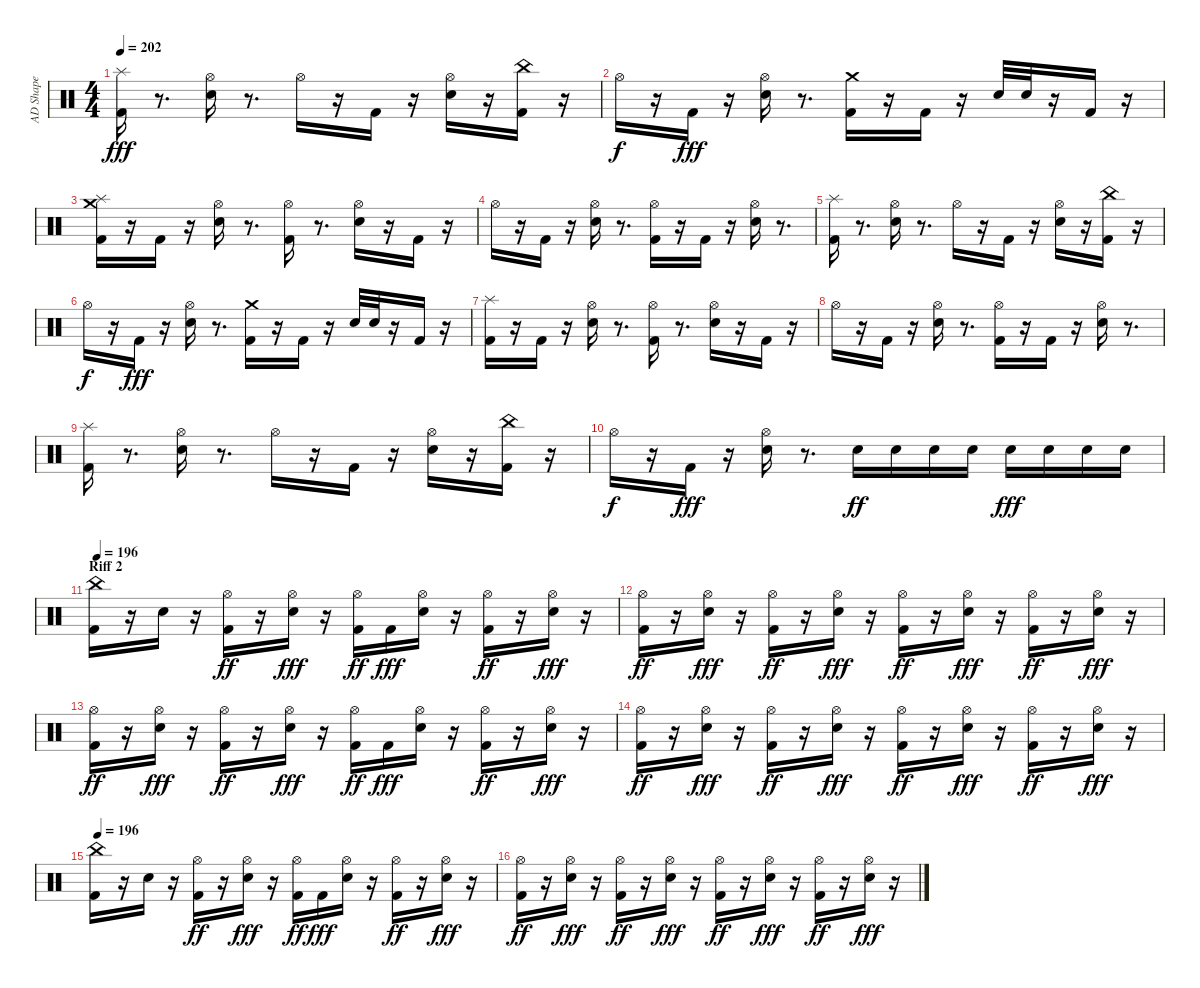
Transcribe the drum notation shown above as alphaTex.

\track ("AD Shape" "AD Shape") {instrument percussion}
\staff {score}
\articulation defaults
\ts (4 4)
\tempo 202
\clef neutral
\ks c
("Kick (hit) 2" "Splash (hit)").16{dy fff} r.8{d} ("Snare (hit) 2" "Hi-Hat (open)").16 r.8{d} "Hi-Hat (open)".16 r.16 "Kick (hit) 2".16 r.16 ("Snare (hit) 2" "Hi-Hat (open)").16 r.16 ("Kick (hit) 2" "China (hit)").16 r.16 |
"Hi-Hat (open)".16{dy f} r.16 "Kick (hit) 2".16{dy fff} r.16 ("Snare (hit) 2" "Hi-Hat (open)").16 r.8{d} ("Kick (hit) 2" "Crash medium (hit)").16 r.16 "Kick (hit) 2".16 r.16 "Snare (hit) 2".32 "Snare (hit) 2".32 r.16 "Kick (hit) 2".16 r.16 |
("Kick (hit) 2" "Splash (hit)" "Crash medium (hit)").16 r.16 "Kick (hit) 2".16 r.16 ("Snare (hit) 2" "Hi-Hat (open)").16 r.8{d} ("Kick (hit) 2" "Hi-Hat (open)").16 r.8{d} ("Snare (hit) 2" "Hi-Hat (open)").16 r.16 "Kick (hit) 2".16 r.16 |
"Hi-Hat (open)".16 r.16 "Kick (hit) 2".16 r.16 ("Snare (hit) 2" "Hi-Hat (open)").16 r.8{d} ("Kick (hit) 2" "Hi-Hat (open)").16 r.16 "Kick (hit) 2".16 r.16 ("Snare (hit) 2" "Hi-Hat (open)").16 r.8{d} |
("Kick (hit) 2" "Splash (hit)").16 r.8{d} ("Snare (hit) 2" "Hi-Hat (open)").16 r.8{d} "Hi-Hat (open)".16 r.16 "Kick (hit) 2".16 r.16 ("Snare (hit) 2" "Hi-Hat (open)").16 r.16 ("Kick (hit) 2" "China (hit)").16 r.16 |
"Hi-Hat (open)".16{dy f} r.16 "Kick (hit) 2".16{dy fff} r.16 ("Snare (hit) 2" "Hi-Hat (open)").16 r.8{d} ("Kick (hit) 2" "Crash medium (hit)").16 r.16 "Kick (hit) 2".16 r.16 "Snare (hit) 2".32 "Snare (hit) 2".32 r.16 "Kick (hit) 2".16 r.16 |
("Kick (hit) 2" "Splash (hit)").16 r.16 "Kick (hit) 2".16 r.16 ("Snare (hit) 2" "Hi-Hat (open)").16 r.8{d} ("Kick (hit) 2" "Hi-Hat (open)").16 r.8{d} ("Snare (hit) 2" "Hi-Hat (open)").16 r.16 "Kick (hit) 2".16 r.16 |
"Hi-Hat (open)".16 r.16 "Kick (hit) 2".16 r.16 ("Snare (hit) 2" "Hi-Hat (open)").16 r.8{d} ("Kick (hit) 2" "Hi-Hat (open)").16 r.16 "Kick (hit) 2".16 r.16 ("Snare (hit) 2" "Hi-Hat (open)").16 r.8{d} |
("Kick (hit) 2" "Splash (hit)").16 r.8{d} ("Snare (hit) 2" "Hi-Hat (open)").16 r.8{d} "Hi-Hat (open)".16 r.16 "Kick (hit) 2".16 r.16 ("Snare (hit) 2" "Hi-Hat (open)").16 r.16 ("Kick (hit) 2" "China (hit)").16 r.16 |
"Hi-Hat (open)".16{dy f} r.16 "Kick (hit) 2".16{dy fff} r.16 ("Snare (hit) 2" "Hi-Hat (open)").16 r.8{d} "Snare (hit) 2".16{dy ff} "Snare (hit) 2".16 "Snare (hit) 2".16 "Snare (hit) 2".16 "Snare (hit) 2".16{dy fff} "Snare (hit) 2".16 "Snare (hit) 2".16 "Snare (hit) 2".16 |
\section ("" "Riff 2")
\tempo 196
("Kick (hit) 2" "China (hit)").16 r.16 "Snare (hit) 2".16 r.16 ("Kick (hit) 2" "Hi-Hat (open)").16{dy ff} r.16 ("Snare (hit) 2" "Hi-Hat (open)").16{dy fff} r.16 ("Kick (hit) 2" "Hi-Hat (open)").16{dy ff} "Kick (hit) 2".16{dy fff} ("Snare (hit) 2" "Hi-Hat (open)").16 r.16 ("Kick (hit) 2" "Hi-Hat (open)").16{dy ff} r.16 ("Snare (hit) 2" "Hi-Hat (open)").16{dy fff} r.16 |
("Kick (hit) 2" "Hi-Hat (open)").16{dy ff} r.16 ("Snare (hit) 2" "Hi-Hat (open)").16{dy fff} r.16 ("Kick (hit) 2" "Hi-Hat (open)").16{dy ff} r.16 ("Snare (hit) 2" "Hi-Hat (open)").16{dy fff} r.16 ("Kick (hit) 2" "Hi-Hat (open)").16{dy ff} r.16 ("Snare (hit) 2" "Hi-Hat (open)").16{dy fff} r.16 ("Kick (hit) 2" "Hi-Hat (open)").16{dy ff} r.16 ("Snare (hit) 2" "Hi-Hat (open)").16{dy fff} r.16 |
("Kick (hit) 2" "Hi-Hat (open)").16{dy ff} r.16 ("Snare (hit) 2" "Hi-Hat (open)").16{dy fff} r.16 ("Kick (hit) 2" "Hi-Hat (open)").16{dy ff} r.16 ("Snare (hit) 2" "Hi-Hat (open)").16{dy fff} r.16 ("Kick (hit) 2" "Hi-Hat (open)").16{dy ff} "Kick (hit) 2".16{dy fff} ("Snare (hit) 2" "Hi-Hat (open)").16 r.16 ("Kick (hit) 2" "Hi-Hat (open)").16{dy ff} r.16 ("Snare (hit) 2" "Hi-Hat (open)").16{dy fff} r.16 |
("Kick (hit) 2" "Hi-Hat (open)").16{dy ff} r.16 ("Snare (hit) 2" "Hi-Hat (open)").16{dy fff} r.16 ("Kick (hit) 2" "Hi-Hat (open)").16{dy ff} r.16 ("Snare (hit) 2" "Hi-Hat (open)").16{dy fff} r.16 ("Kick (hit) 2" "Hi-Hat (open)").16{dy ff} r.16 ("Snare (hit) 2" "Hi-Hat (open)").16{dy fff} r.16 ("Kick (hit) 2" "Hi-Hat (open)").16{dy ff} r.16 ("Snare (hit) 2" "Hi-Hat (open)").16{dy fff} r.16 |
\tempo 196
("Kick (hit) 2" "China (hit)").16 r.16 "Snare (hit) 2".16 r.16 ("Kick (hit) 2" "Hi-Hat (open)").16{dy ff} r.16 ("Snare (hit) 2" "Hi-Hat (open)").16{dy fff} r.16 ("Kick (hit) 2" "Hi-Hat (open)").16{dy ff} "Kick (hit) 2".16{dy fff} ("Snare (hit) 2" "Hi-Hat (open)").16 r.16 ("Kick (hit) 2" "Hi-Hat (open)").16{dy ff} r.16 ("Snare (hit) 2" "Hi-Hat (open)").16{dy fff} r.16 |
("Kick (hit) 2" "Hi-Hat (open)").16{dy ff} r.16 ("Snare (hit) 2" "Hi-Hat (open)").16{dy fff} r.16 ("Kick (hit) 2" "Hi-Hat (open)").16{dy ff} r.16 ("Snare (hit) 2" "Hi-Hat (open)").16{dy fff} r.16 ("Kick (hit) 2" "Hi-Hat (open)").16{dy ff} r.16 ("Snare (hit) 2" "Hi-Hat (open)").16{dy fff} r.16 ("Kick (hit) 2" "Hi-Hat (open)").16{dy ff} r.16 ("Snare (hit) 2" "Hi-Hat (open)").16{dy fff} r.16
